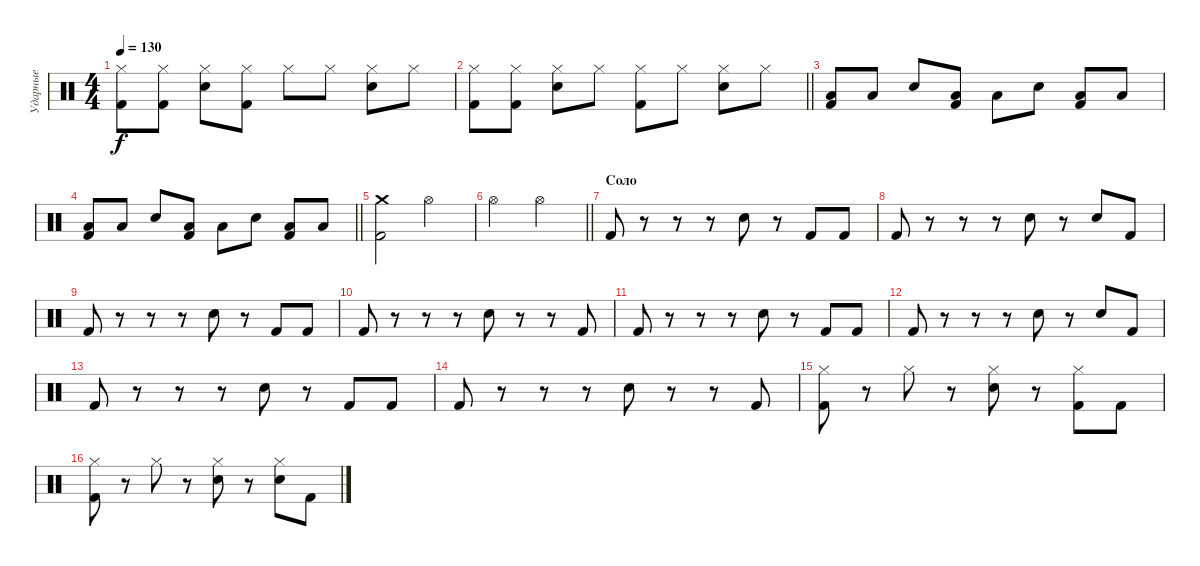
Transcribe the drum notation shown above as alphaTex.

\track ("Ударные" "Ударные") {instrument percussion}
\staff {score}
\articulation defaults
\ts (4 4)
\tempo 130
\clef neutral
\ks c
("Hi-Hat (closed)" "Kick (hit) 2").8{dy f} ("Hi-Hat (closed)" "Kick (hit) 2").8 ("Hi-Hat (closed)" "Snare (hit) 2").8 ("Hi-Hat (closed)" "Kick (hit) 2").8 "Hi-Hat (closed)".8 "Hi-Hat (closed)".8 ("Hi-Hat (closed)" "Snare (hit) 2").8 "Hi-Hat (closed)".8 |
\barLineRight lightlight
("Hi-Hat (closed)" "Kick (hit) 2").8 ("Hi-Hat (closed)" "Kick (hit) 2").8 ("Hi-Hat (closed)" "Snare (hit) 2").8 "Hi-Hat (closed)".8 ("Hi-Hat (closed)" "Kick (hit) 2").8 "Hi-Hat (closed)".8 ("Hi-Hat (closed)" "Snare (hit) 2").8 "Hi-Hat (closed)".8 |
("Low Floor Tom (hit)" "Kick (hit) 2").8 "Low Floor Tom (hit)".8 "Snare (hit) 2".8 ("Low Floor Tom (hit)" "Kick (hit) 2").8 "Low Floor Tom (hit)".8 "Snare (hit) 2".8 ("Low Floor Tom (hit)" "Kick (hit) 2").8 "Low Floor Tom (hit)".8 |
\barLineRight lightlight
("Low Floor Tom (hit)" "Kick (hit) 2").8 "Low Floor Tom (hit)".8 "Snare (hit) 2".8 ("Low Floor Tom (hit)" "Kick (hit) 2").8 "Low Floor Tom (hit)".8 "Snare (hit) 2".8 ("Low Floor Tom (hit)" "Kick (hit) 2").8 "Low Floor Tom (hit)".8 |
("Crash medium (hit)" "Kick (hit) 2").2 "Hi-Hat (open)".2 |
\barLineRight lightlight "Hi-Hat (open)".2 "Hi-Hat (open)".2
|
\section ("" "Соло")
"Kick (hit) 2".8 r.8 r.8 r.8 "Snare (hit) 2".8 r.8 "Kick (hit) 2".8 "Kick (hit) 2".8 |
"Kick (hit) 2".8 r.8 r.8 r.8 "Snare (hit) 2".8 r.8 "Snare (hit) 2".8 "Kick (hit) 2".8 |
"Kick (hit) 2".8 r.8 r.8 r.8 "Snare (hit) 2".8 r.8 "Kick (hit) 2".8 "Kick (hit) 2".8 |
"Kick (hit) 2".8 r.8 r.8 r.8 "Snare (hit) 2".8 r.8 r.8 "Kick (hit) 2".8 |
"Kick (hit) 2".8 r.8 r.8 r.8 "Snare (hit) 2".8 r.8 "Kick (hit) 2".8 "Kick (hit) 2".8 |
"Kick (hit) 2".8 r.8 r.8 r.8 "Snare (hit) 2".8 r.8 "Snare (hit) 2".8 "Kick (hit) 2".8 |
"Kick (hit) 2".8 r.8 r.8 r.8 "Snare (hit) 2".8 r.8 "Kick (hit) 2".8 "Kick (hit) 2".8 |
"Kick (hit) 2".8 r.8 r.8 r.8 "Snare (hit) 2".8 r.8 r.8 "Kick (hit) 2".8 |
("Hi-Hat (closed)" "Kick (hit) 2").8 r.8 "Hi-Hat (closed)".8 r.8 ("Hi-Hat (closed)" "Snare (hit) 2").8 r.8 ("Hi-Hat (closed)" "Kick (hit) 2").8 "Kick (hit) 2".8 |
("Hi-Hat (closed)" "Kick (hit) 2").8 r.8 "Hi-Hat (closed)".8 r.8 ("Hi-Hat (closed)" "Snare (hit) 2").8 r.8 ("Hi-Hat (closed)" "Snare (hit) 2").8 "Kick (hit) 2".8
